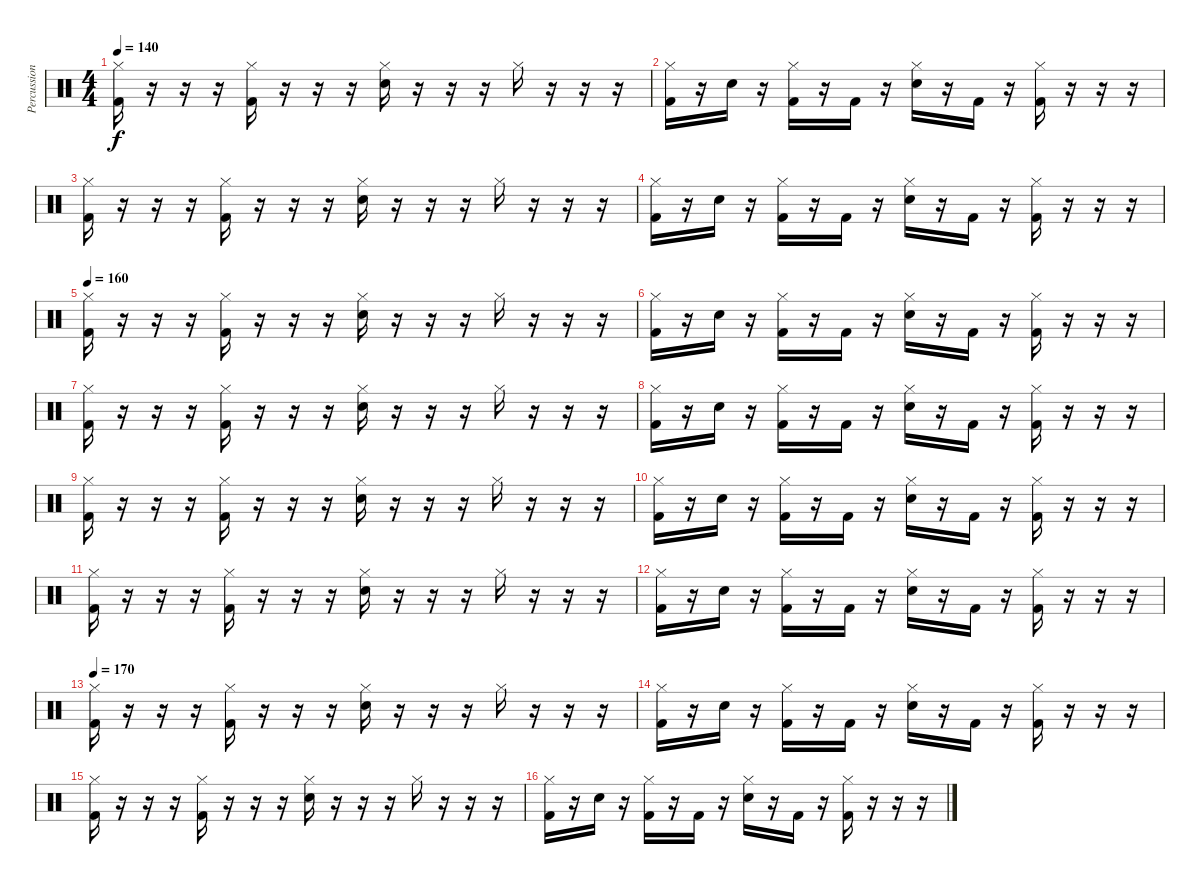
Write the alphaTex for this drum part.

\track ("Percussion" "Percussion") {instrument percussion}
\staff {score}
\articulation defaults
\ts (4 4)
\tempo 140
\clef neutral
\ks c
("Hi-Hat (closed)" "Kick (hit) 2").16{dy f} r.16 r.16 r.16 ("Hi-Hat (closed)" "Kick (hit) 2").16 r.16 r.16 r.16 ("Hi-Hat (closed)" "Snare (hit) 2").16 r.16 r.16 r.16 "Hi-Hat (closed)".16 r.16 r.16 r.16 |
("Hi-Hat (closed)" "Kick (hit) 2").16 r.16 "Snare (hit) 2".16 r.16 ("Hi-Hat (closed)" "Kick (hit) 2").16 r.16 "Kick (hit) 2".16 r.16 ("Hi-Hat (closed)" "Snare (hit) 2").16 r.16 "Kick (hit) 2".16 r.16 ("Hi-Hat (closed)" "Kick (hit) 2").16 r.16 r.16 r.16 |
("Hi-Hat (closed)" "Kick (hit) 2").16 r.16 r.16 r.16 ("Hi-Hat (closed)" "Kick (hit) 2").16 r.16 r.16 r.16 ("Hi-Hat (closed)" "Snare (hit) 2").16 r.16 r.16 r.16 "Hi-Hat (closed)".16 r.16 r.16 r.16 |
("Hi-Hat (closed)" "Kick (hit) 2").16 r.16 "Snare (hit) 2".16 r.16 ("Hi-Hat (closed)" "Kick (hit) 2").16 r.16 "Kick (hit) 2".16 r.16 ("Hi-Hat (closed)" "Snare (hit) 2").16 r.16 "Kick (hit) 2".16 r.16 ("Hi-Hat (closed)" "Kick (hit) 2").16 r.16 r.16 r.16 |
\tempo 160
("Hi-Hat (closed)" "Kick (hit) 2").16 r.16 r.16 r.16 ("Hi-Hat (closed)" "Kick (hit) 2").16 r.16 r.16 r.16 ("Hi-Hat (closed)" "Snare (hit) 2").16 r.16 r.16 r.16 "Hi-Hat (closed)".16 r.16 r.16 r.16 |
("Hi-Hat (closed)" "Kick (hit) 2").16 r.16 "Snare (hit) 2".16 r.16 ("Hi-Hat (closed)" "Kick (hit) 2").16 r.16 "Kick (hit) 2".16 r.16 ("Hi-Hat (closed)" "Snare (hit) 2").16 r.16 "Kick (hit) 2".16 r.16 ("Hi-Hat (closed)" "Kick (hit) 2").16 r.16 r.16 r.16 |
("Hi-Hat (closed)" "Kick (hit) 2").16 r.16 r.16 r.16 ("Hi-Hat (closed)" "Kick (hit) 2").16 r.16 r.16 r.16 ("Hi-Hat (closed)" "Snare (hit) 2").16 r.16 r.16 r.16 "Hi-Hat (closed)".16 r.16 r.16 r.16 |
("Hi-Hat (closed)" "Kick (hit) 2").16 r.16 "Snare (hit) 2".16 r.16 ("Hi-Hat (closed)" "Kick (hit) 2").16 r.16 "Kick (hit) 2".16 r.16 ("Hi-Hat (closed)" "Snare (hit) 2").16 r.16 "Kick (hit) 2".16 r.16 ("Hi-Hat (closed)" "Kick (hit) 2").16 r.16 r.16 r.16 |
("Hi-Hat (closed)" "Kick (hit) 2").16 r.16 r.16 r.16 ("Hi-Hat (closed)" "Kick (hit) 2").16 r.16 r.16 r.16 ("Hi-Hat (closed)" "Snare (hit) 2").16 r.16 r.16 r.16 "Hi-Hat (closed)".16 r.16 r.16 r.16 |
("Hi-Hat (closed)" "Kick (hit) 2").16 r.16 "Snare (hit) 2".16 r.16 ("Hi-Hat (closed)" "Kick (hit) 2").16 r.16 "Kick (hit) 2".16 r.16 ("Hi-Hat (closed)" "Snare (hit) 2").16 r.16 "Kick (hit) 2".16 r.16 ("Hi-Hat (closed)" "Kick (hit) 2").16 r.16 r.16 r.16 |
("Hi-Hat (closed)" "Kick (hit) 2").16 r.16 r.16 r.16 ("Hi-Hat (closed)" "Kick (hit) 2").16 r.16 r.16 r.16 ("Hi-Hat (closed)" "Snare (hit) 2").16 r.16 r.16 r.16 "Hi-Hat (closed)".16 r.16 r.16 r.16 |
("Hi-Hat (closed)" "Kick (hit) 2").16 r.16 "Snare (hit) 2".16 r.16 ("Hi-Hat (closed)" "Kick (hit) 2").16 r.16 "Kick (hit) 2".16 r.16 ("Hi-Hat (closed)" "Snare (hit) 2").16 r.16 "Kick (hit) 2".16 r.16 ("Hi-Hat (closed)" "Kick (hit) 2").16 r.16 r.16 r.16 |
\tempo 170
("Hi-Hat (closed)" "Kick (hit) 2").16 r.16 r.16 r.16 ("Hi-Hat (closed)" "Kick (hit) 2").16 r.16 r.16 r.16 ("Hi-Hat (closed)" "Snare (hit) 2").16 r.16 r.16 r.16 "Hi-Hat (closed)".16 r.16 r.16 r.16 |
("Hi-Hat (closed)" "Kick (hit) 2").16 r.16 "Snare (hit) 2".16 r.16 ("Hi-Hat (closed)" "Kick (hit) 2").16 r.16 "Kick (hit) 2".16 r.16 ("Hi-Hat (closed)" "Snare (hit) 2").16 r.16 "Kick (hit) 2".16 r.16 ("Hi-Hat (closed)" "Kick (hit) 2").16 r.16 r.16 r.16 |
("Hi-Hat (closed)" "Kick (hit) 2").16 r.16 r.16 r.16 ("Hi-Hat (closed)" "Kick (hit) 2").16 r.16 r.16 r.16 ("Hi-Hat (closed)" "Snare (hit) 2").16 r.16 r.16 r.16 "Hi-Hat (closed)".16 r.16 r.16 r.16 |
("Hi-Hat (closed)" "Kick (hit) 2").16 r.16 "Snare (hit) 2".16 r.16 ("Hi-Hat (closed)" "Kick (hit) 2").16 r.16 "Kick (hit) 2".16 r.16 ("Hi-Hat (closed)" "Snare (hit) 2").16 r.16 "Kick (hit) 2".16 r.16 ("Hi-Hat (closed)" "Kick (hit) 2").16 r.16 r.16 r.16
